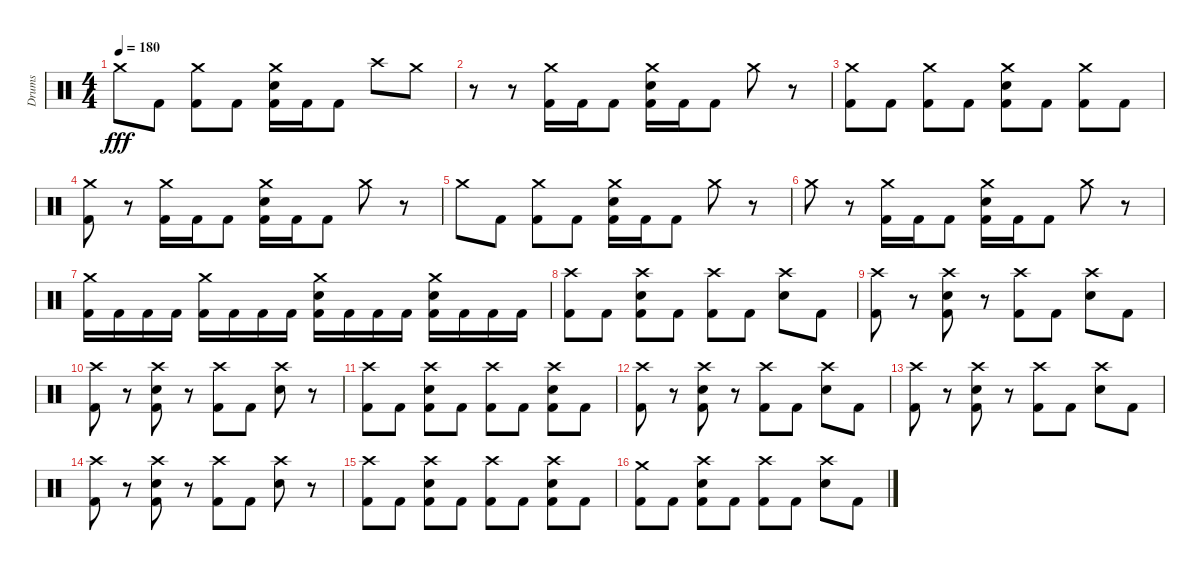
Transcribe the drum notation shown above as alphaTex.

\track ("Drums " "Drums ") {instrument percussion}
\staff {score}
\articulation defaults
\ts (4 4)
\tempo 180
\clef neutral
\ks c "Crash medium (hit)".8{dy fff} "Kick (hit) 2".8
("Crash medium (hit)" "Kick (hit) 2").8 "Kick (hit) 2".8 ("Crash medium (hit)" "Snare (hit) 2" "Kick (hit) 2").16 "Kick (hit) 2".16 "Kick (hit) 2".8 "Crash high (hit)".8 "Crash medium (hit)".8 |
r.8 r.8 ("Crash medium (hit)" "Kick (hit) 2").16 "Kick (hit) 2".16 "Kick (hit) 2".8 ("Crash medium (hit)" "Snare (hit) 2" "Kick (hit) 2").16 "Kick (hit) 2".16 "Kick (hit) 2".8 "Crash medium (hit)".8 r.8 |
("Crash medium (hit)" "Kick (hit) 2").8 "Kick (hit) 2".8 ("Crash medium (hit)" "Kick (hit) 2").8 "Kick (hit) 2".8 ("Crash medium (hit)" "Snare (hit) 2" "Kick (hit) 2").8 "Kick (hit) 2".8 ("Crash medium (hit)" "Kick (hit) 2").8 "Kick (hit) 2".8 |
("Crash medium (hit)" "Kick (hit) 2").8 r.8 ("Crash medium (hit)" "Kick (hit) 2").16 "Kick (hit) 2".16 "Kick (hit) 2".8 ("Crash medium (hit)" "Snare (hit) 2" "Kick (hit) 2").16 "Kick (hit) 2".16 "Kick (hit) 2".8 "Crash medium (hit)".8 r.8 |
"Crash medium (hit)".8 "Kick (hit) 2".8 ("Crash medium (hit)" "Kick (hit) 2").8 "Kick (hit) 2".8 ("Crash medium (hit)" "Snare (hit) 2" "Kick (hit) 2").16 "Kick (hit) 2".16 "Kick (hit) 2".8 "Crash medium (hit)".8 r.8 |
"Crash medium (hit)".8 r.8 ("Crash medium (hit)" "Kick (hit) 2").16 "Kick (hit) 2".16 "Kick (hit) 2".8 ("Crash medium (hit)" "Snare (hit) 2" "Kick (hit) 2").16 "Kick (hit) 2".16 "Kick (hit) 2".8 "Crash medium (hit)".8 r.8 |
("Crash medium (hit)" "Kick (hit) 2").16 "Kick (hit) 2".16 "Kick (hit) 2".16 "Kick (hit) 2".16 ("Crash medium (hit)" "Kick (hit) 2").16 "Kick (hit) 2".16 "Kick (hit) 2".16 "Kick (hit) 2".16 ("Crash medium (hit)" "Snare (hit) 2" "Kick (hit) 2").16 "Kick (hit) 2".16 "Kick (hit) 2".16 "Kick (hit) 2".16 ("Crash medium (hit)" "Snare (hit) 2" "Kick (hit) 2").16 "Kick (hit) 2".16 "Kick (hit) 2".16 "Kick (hit) 2".16 |
("Crash high (hit)" "Kick (hit) 2").8 "Kick (hit) 2".8 ("Crash high (hit)" "Snare (hit) 2" "Kick (hit) 2").8 "Kick (hit) 2".8 ("Crash high (hit)" "Kick (hit) 2").8 "Kick (hit) 2".8 ("Crash high (hit)" "Snare (hit) 2").8 "Kick (hit) 2".8 |
("Crash high (hit)" "Kick (hit) 2").8 r.8 ("Crash high (hit)" "Snare (hit) 2" "Kick (hit) 2").8 r.8 ("Crash high (hit)" "Kick (hit) 2").8 "Kick (hit) 2".8 ("Crash high (hit)" "Snare (hit) 2").8 "Kick (hit) 2".8 |
("Crash high (hit)" "Kick (hit) 2").8 r.8 ("Crash high (hit)" "Snare (hit) 2" "Kick (hit) 2").8 r.8 ("Crash high (hit)" "Kick (hit) 2").8 "Kick (hit) 2".8 ("Crash high (hit)" "Snare (hit) 2").8 r.8 |
("Crash high (hit)" "Kick (hit) 2").8 "Kick (hit) 2".8 ("Crash high (hit)" "Snare (hit) 2" "Kick (hit) 2").8 "Kick (hit) 2".8 ("Crash high (hit)" "Kick (hit) 2").8 "Kick (hit) 2".8 ("Crash high (hit)" "Snare (hit) 2" "Kick (hit) 2").8 "Kick (hit) 2".8 |
("Crash high (hit)" "Kick (hit) 2").8 r.8 ("Crash high (hit)" "Snare (hit) 2" "Kick (hit) 2").8 r.8 ("Crash high (hit)" "Kick (hit) 2").8 "Kick (hit) 2".8 ("Crash high (hit)" "Snare (hit) 2").8 "Kick (hit) 2".8 |
("Crash high (hit)" "Kick (hit) 2").8 r.8 ("Crash high (hit)" "Snare (hit) 2" "Kick (hit) 2").8 r.8 ("Crash high (hit)" "Kick (hit) 2").8 "Kick (hit) 2".8 ("Crash high (hit)" "Snare (hit) 2").8 "Kick (hit) 2".8 |
("Crash high (hit)" "Kick (hit) 2").8 r.8 ("Crash high (hit)" "Snare (hit) 2" "Kick (hit) 2").8 r.8 ("Crash high (hit)" "Kick (hit) 2").8 "Kick (hit) 2".8 ("Crash high (hit)" "Snare (hit) 2").8 r.8 |
("Crash high (hit)" "Kick (hit) 2").8 "Kick (hit) 2".8 ("Crash high (hit)" "Snare (hit) 2" "Kick (hit) 2").8 "Kick (hit) 2".8 ("Crash high (hit)" "Kick (hit) 2").8 "Kick (hit) 2".8 ("Crash high (hit)" "Snare (hit) 2" "Kick (hit) 2").8 "Kick (hit) 2".8 |
("Crash medium (hit)" "Kick (hit) 2").8 "Kick (hit) 2".8 ("Crash high (hit)" "Snare (hit) 2" "Kick (hit) 2").8 "Kick (hit) 2".8 ("Crash high (hit)" "Kick (hit) 2").8 "Kick (hit) 2".8 ("Crash high (hit)" "Snare (hit) 2").8 "Kick (hit) 2".8
